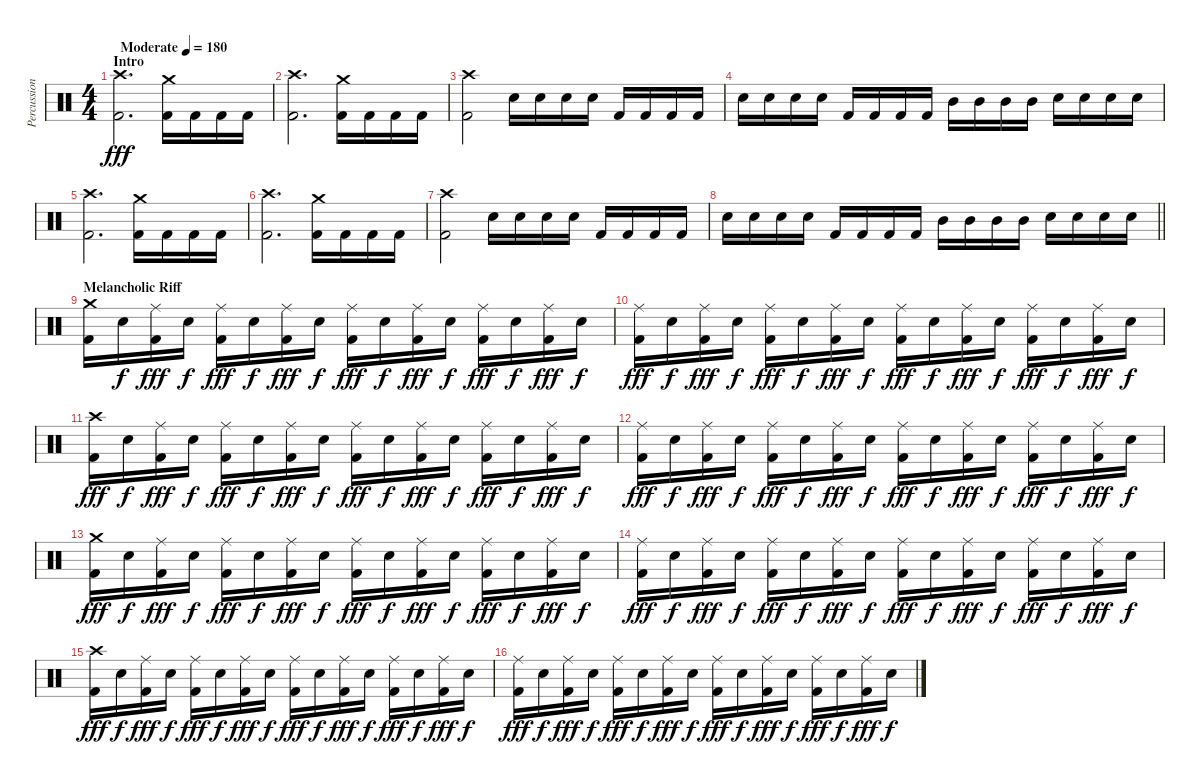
\track ("Percussions" "Percussion") {instrument percussion}
\staff {score}
\articulation defaults
\ts (4 4)
\section ("" "Intro")
\tempo (180 "Moderate")
\clef neutral
\ks c
("Crash high (hit)" "Kick (hit) 2").2{d dy fff} ("Crash medium (hit)" "Kick (hit) 2").16 "Kick (hit) 2".16 "Kick (hit) 2".16 "Kick (hit) 2".16 |
("Crash high (hit)" "Kick (hit) 2").2{d} ("Crash medium (hit)" "Kick (hit) 2").16 "Kick (hit) 2".16 "Kick (hit) 2".16 "Kick (hit) 2".16 |
("Crash high (hit)" "Kick (hit) 2").2 "Snare (hit) 2".16 "Snare (hit) 2".16 "Snare (hit) 2".16 "Snare (hit) 2".16 "Kick (hit) 2".16 "Kick (hit) 2".16 "Kick (hit) 2".16 "Kick (hit) 2".16 |
"Snare (hit) 2".16 "Snare (hit) 2".16 "Snare (hit) 2".16 "Snare (hit) 2".16 "Kick (hit) 2".16 "Kick (hit) 2".16 "Kick (hit) 2".16 "Kick (hit) 2".16 "Mid Tom (hit)".16 "Mid Tom (hit)".16 "Mid Tom (hit)".16 "Mid Tom (hit)".16 "Snare (hit) 2".16 "Snare (hit) 2".16 "Snare (hit) 2".16 "Snare (hit) 2".16 |
("Crash high (hit)" "Kick (hit) 2").2{d} ("Crash medium (hit)" "Kick (hit) 2").16 "Kick (hit) 2".16 "Kick (hit) 2".16 "Kick (hit) 2".16 |
("Crash high (hit)" "Kick (hit) 2").2{d} ("Crash medium (hit)" "Kick (hit) 2").16 "Kick (hit) 2".16 "Kick (hit) 2".16 "Kick (hit) 2".16 |
("Crash high (hit)" "Kick (hit) 2").2 "Snare (hit) 2".16 "Snare (hit) 2".16 "Snare (hit) 2".16 "Snare (hit) 2".16 "Kick (hit) 2".16 "Kick (hit) 2".16 "Kick (hit) 2".16 "Kick (hit) 2".16 |
\barLineRight lightlight "Snare (hit) 2".16 "Snare (hit) 2".16 "Snare (hit) 2".16 "Snare (hit) 2".16 "Kick (hit) 2".16 "Kick (hit) 2".16 "Kick (hit) 2".16 "Kick (hit) 2".16 "Mid Tom (hit)".16 "Mid Tom (hit)".16 "Mid Tom (hit)".16 "Mid Tom (hit)".16 "Snare (hit) 2".16 "Snare (hit) 2".16 "Snare (hit) 2".16 "Snare (hit) 2".16
|
\section ("" "Melancholic Riff")
("Crash medium (hit)" "Kick (hit) 2").16 "Snare (hit) 2".16{dy f} ("Ride (middle)" "Kick (hit) 2").16{dy fff} "Snare (hit) 2".16{dy f} ("Ride (middle)" "Kick (hit) 2").16{dy fff} "Snare (hit) 2".16{dy f} ("Ride (middle)" "Kick (hit) 2").16{dy fff} "Snare (hit) 2".16{dy f} ("Ride (middle)" "Kick (hit) 2").16{dy fff} "Snare (hit) 2".16{dy f} ("Ride (middle)" "Kick (hit) 2").16{dy fff} "Snare (hit) 2".16{dy f} ("Ride (middle)" "Kick (hit) 2").16{dy fff} "Snare (hit) 2".16{dy f} ("Ride (middle)" "Kick (hit) 2").16{dy fff} "Snare (hit) 2".16{dy f} |
("Ride (middle)" "Kick (hit) 2").16{dy fff} "Snare (hit) 2".16{dy f} ("Ride (middle)" "Kick (hit) 2").16{dy fff} "Snare (hit) 2".16{dy f} ("Ride (middle)" "Kick (hit) 2").16{dy fff} "Snare (hit) 2".16{dy f} ("Ride (middle)" "Kick (hit) 2").16{dy fff} "Snare (hit) 2".16{dy f} ("Ride (middle)" "Kick (hit) 2").16{dy fff} "Snare (hit) 2".16{dy f} ("Ride (middle)" "Kick (hit) 2").16{dy fff} "Snare (hit) 2".16{dy f} ("Ride (middle)" "Kick (hit) 2").16{dy fff} "Snare (hit) 2".16{dy f} ("Ride (middle)" "Kick (hit) 2").16{dy fff} "Snare (hit) 2".16{dy f} |
("Crash high (hit)" "Kick (hit) 2").16{dy fff} "Snare (hit) 2".16{dy f} ("Ride (middle)" "Kick (hit) 2").16{dy fff} "Snare (hit) 2".16{dy f} ("Ride (middle)" "Kick (hit) 2").16{dy fff} "Snare (hit) 2".16{dy f} ("Ride (middle)" "Kick (hit) 2").16{dy fff} "Snare (hit) 2".16{dy f} ("Ride (middle)" "Kick (hit) 2").16{dy fff} "Snare (hit) 2".16{dy f} ("Ride (middle)" "Kick (hit) 2").16{dy fff} "Snare (hit) 2".16{dy f} ("Ride (middle)" "Kick (hit) 2").16{dy fff} "Snare (hit) 2".16{dy f} ("Ride (middle)" "Kick (hit) 2").16{dy fff} "Snare (hit) 2".16{dy f} |
("Ride (middle)" "Kick (hit) 2").16{dy fff} "Snare (hit) 2".16{dy f} ("Ride (middle)" "Kick (hit) 2").16{dy fff} "Snare (hit) 2".16{dy f} ("Ride (middle)" "Kick (hit) 2").16{dy fff} "Snare (hit) 2".16{dy f} ("Ride (middle)" "Kick (hit) 2").16{dy fff} "Snare (hit) 2".16{dy f} ("Ride (middle)" "Kick (hit) 2").16{dy fff} "Snare (hit) 2".16{dy f} ("Ride (middle)" "Kick (hit) 2").16{dy fff} "Snare (hit) 2".16{dy f} ("Ride (middle)" "Kick (hit) 2").16{dy fff} "Snare (hit) 2".16{dy f} ("Ride (middle)" "Kick (hit) 2").16{dy fff} "Snare (hit) 2".16{dy f} |
("Crash medium (hit)" "Kick (hit) 2").16{dy fff} "Snare (hit) 2".16{dy f} ("Ride (middle)" "Kick (hit) 2").16{dy fff} "Snare (hit) 2".16{dy f} ("Ride (middle)" "Kick (hit) 2").16{dy fff} "Snare (hit) 2".16{dy f} ("Ride (middle)" "Kick (hit) 2").16{dy fff} "Snare (hit) 2".16{dy f} ("Ride (middle)" "Kick (hit) 2").16{dy fff} "Snare (hit) 2".16{dy f} ("Ride (middle)" "Kick (hit) 2").16{dy fff} "Snare (hit) 2".16{dy f} ("Ride (middle)" "Kick (hit) 2").16{dy fff} "Snare (hit) 2".16{dy f} ("Ride (middle)" "Kick (hit) 2").16{dy fff} "Snare (hit) 2".16{dy f} |
("Ride (middle)" "Kick (hit) 2").16{dy fff} "Snare (hit) 2".16{dy f} ("Ride (middle)" "Kick (hit) 2").16{dy fff} "Snare (hit) 2".16{dy f} ("Ride (middle)" "Kick (hit) 2").16{dy fff} "Snare (hit) 2".16{dy f} ("Ride (middle)" "Kick (hit) 2").16{dy fff} "Snare (hit) 2".16{dy f} ("Ride (middle)" "Kick (hit) 2").16{dy fff} "Snare (hit) 2".16{dy f} ("Ride (middle)" "Kick (hit) 2").16{dy fff} "Snare (hit) 2".16{dy f} ("Ride (middle)" "Kick (hit) 2").16{dy fff} "Snare (hit) 2".16{dy f} ("Ride (middle)" "Kick (hit) 2").16{dy fff} "Snare (hit) 2".16{dy f} |
("Crash high (hit)" "Kick (hit) 2").16{dy fff} "Snare (hit) 2".16{dy f} ("Ride (middle)" "Kick (hit) 2").16{dy fff} "Snare (hit) 2".16{dy f} ("Ride (middle)" "Kick (hit) 2").16{dy fff} "Snare (hit) 2".16{dy f} ("Ride (middle)" "Kick (hit) 2").16{dy fff} "Snare (hit) 2".16{dy f} ("Ride (middle)" "Kick (hit) 2").16{dy fff} "Snare (hit) 2".16{dy f} ("Ride (middle)" "Kick (hit) 2").16{dy fff} "Snare (hit) 2".16{dy f} ("Ride (middle)" "Kick (hit) 2").16{dy fff} "Snare (hit) 2".16{dy f} ("Ride (middle)" "Kick (hit) 2").16{dy fff} "Snare (hit) 2".16{dy f} |
("Ride (middle)" "Kick (hit) 2").16{dy fff} "Snare (hit) 2".16{dy f} ("Ride (middle)" "Kick (hit) 2").16{dy fff} "Snare (hit) 2".16{dy f} ("Ride (middle)" "Kick (hit) 2").16{dy fff} "Snare (hit) 2".16{dy f} ("Ride (middle)" "Kick (hit) 2").16{dy fff} "Snare (hit) 2".16{dy f} ("Ride (middle)" "Kick (hit) 2").16{dy fff} "Snare (hit) 2".16{dy f} ("Ride (middle)" "Kick (hit) 2").16{dy fff} "Snare (hit) 2".16{dy f} ("Ride (middle)" "Kick (hit) 2").16{dy fff} "Snare (hit) 2".16{dy f} ("Ride (middle)" "Kick (hit) 2").16{dy fff} "Snare (hit) 2".16{dy f}
